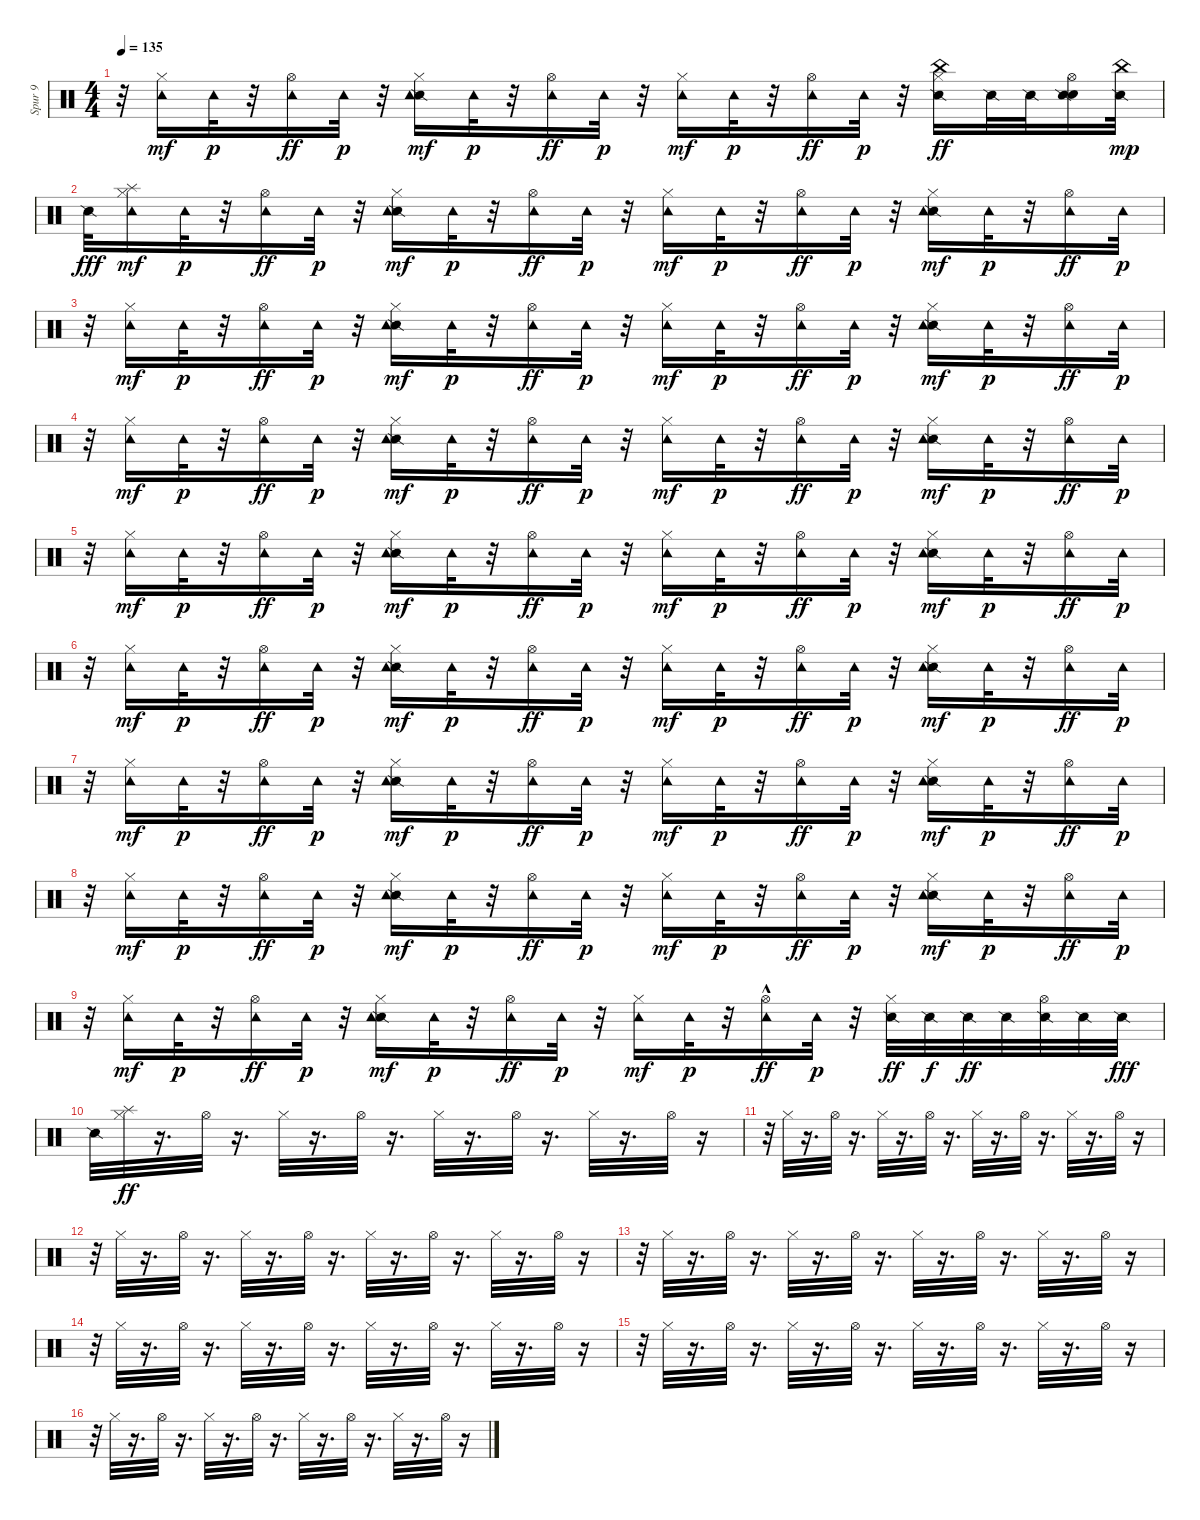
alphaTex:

\track ("Spur 9" "Spur 9") {instrument percussion}
\staff {score}
\articulation defaults
\ts (4 4)
\tempo 135
\clef neutral
\ks c
r.32{dy p} ("Hi-Hat (closed)" "Tambourine (hit)").16{dy mf} "Tambourine (hit)".32{dy p} r.32 ("Hi-Hat (open)" "Tambourine (hit)").16{dy ff} "Tambourine (hit)".32{dy p} r.32 ("Snare (side stick) 2" "Hi-Hat (closed)" "Tambourine (hit)").16{dy mf} "Tambourine (hit)".32{dy p} r.32 ("Hi-Hat (open)" "Tambourine (hit)").16{dy ff} "Tambourine (hit)".32{dy p} r.32 ("Hi-Hat (closed)" "Tambourine (hit)").16{dy mf} "Tambourine (hit)".32{dy p} r.32 ("Hi-Hat (open)" "Tambourine (hit)").16{dy ff} "Tambourine (hit)".32{dy p} r.32 ("Snare (side stick) 2" "Hi-Hat (closed)" "China (hit)").16{dy ff} "Snare (side stick) 2".32 "Snare (side stick) 2".32 ("Snare (hit)" "Snare (side stick) 2" "Hi-Hat (open)").16 ("Snare (side stick) 2" "China (hit)").32{dy mp} |
"Snare (side stick) 2".32{dy fff} ("Splash (hit)" "Hi-Hat (closed)" "Tambourine (hit)").16{dy mf} "Tambourine (hit)".32{dy p} r.32 ("Hi-Hat (open)" "Tambourine (hit)").16{dy ff} "Tambourine (hit)".32{dy p} r.32 ("Snare (side stick) 2" "Hi-Hat (closed)" "Tambourine (hit)").16{dy mf} "Tambourine (hit)".32{dy p} r.32 ("Hi-Hat (open)" "Tambourine (hit)").16{dy ff} "Tambourine (hit)".32{dy p} r.32 ("Hi-Hat (closed)" "Tambourine (hit)").16{dy mf} "Tambourine (hit)".32{dy p} r.32 ("Hi-Hat (open)" "Tambourine (hit)").16{dy ff} "Tambourine (hit)".32{dy p} r.32 ("Snare (side stick) 2" "Hi-Hat (closed)" "Tambourine (hit)").16{dy mf} "Tambourine (hit)".32{dy p} r.32 ("Hi-Hat (open)" "Tambourine (hit)").16{dy ff} "Tambourine (hit)".32{dy p} |
r.32 ("Hi-Hat (closed)" "Tambourine (hit)").16{dy mf} "Tambourine (hit)".32{dy p} r.32 ("Hi-Hat (open)" "Tambourine (hit)").16{dy ff} "Tambourine (hit)".32{dy p} r.32 ("Snare (side stick) 2" "Hi-Hat (closed)" "Tambourine (hit)").16{dy mf} "Tambourine (hit)".32{dy p} r.32 ("Hi-Hat (open)" "Tambourine (hit)").16{dy ff} "Tambourine (hit)".32{dy p} r.32 ("Hi-Hat (closed)" "Tambourine (hit)").16{dy mf} "Tambourine (hit)".32{dy p} r.32 ("Hi-Hat (open)" "Tambourine (hit)").16{dy ff} "Tambourine (hit)".32{dy p} r.32 ("Snare (side stick) 2" "Hi-Hat (closed)" "Tambourine (hit)").16{dy mf} "Tambourine (hit)".32{dy p} r.32 ("Hi-Hat (open)" "Tambourine (hit)").16{dy ff} "Tambourine (hit)".32{dy p} |
r.32 ("Hi-Hat (closed)" "Tambourine (hit)").16{dy mf} "Tambourine (hit)".32{dy p} r.32 ("Hi-Hat (open)" "Tambourine (hit)").16{dy ff} "Tambourine (hit)".32{dy p} r.32 ("Snare (side stick) 2" "Hi-Hat (closed)" "Tambourine (hit)").16{dy mf} "Tambourine (hit)".32{dy p} r.32 ("Hi-Hat (open)" "Tambourine (hit)").16{dy ff} "Tambourine (hit)".32{dy p} r.32 ("Hi-Hat (closed)" "Tambourine (hit)").16{dy mf} "Tambourine (hit)".32{dy p} r.32 ("Hi-Hat (open)" "Tambourine (hit)").16{dy ff} "Tambourine (hit)".32{dy p} r.32 ("Snare (side stick) 2" "Hi-Hat (closed)" "Tambourine (hit)").16{dy mf} "Tambourine (hit)".32{dy p} r.32 ("Hi-Hat (open)" "Tambourine (hit)").16{dy ff} "Tambourine (hit)".32{dy p} |
r.32 ("Hi-Hat (closed)" "Tambourine (hit)").16{dy mf} "Tambourine (hit)".32{dy p} r.32 ("Hi-Hat (open)" "Tambourine (hit)").16{dy ff} "Tambourine (hit)".32{dy p} r.32 ("Snare (side stick) 2" "Hi-Hat (closed)" "Tambourine (hit)").16{dy mf} "Tambourine (hit)".32{dy p} r.32 ("Hi-Hat (open)" "Tambourine (hit)").16{dy ff} "Tambourine (hit)".32{dy p} r.32 ("Hi-Hat (closed)" "Tambourine (hit)").16{dy mf} "Tambourine (hit)".32{dy p} r.32 ("Hi-Hat (open)" "Tambourine (hit)").16{dy ff} "Tambourine (hit)".32{dy p} r.32 ("Snare (side stick) 2" "Hi-Hat (closed)" "Tambourine (hit)").16{dy mf} "Tambourine (hit)".32{dy p} r.32 ("Hi-Hat (open)" "Tambourine (hit)").16{dy ff} "Tambourine (hit)".32{dy p} |
r.32 ("Hi-Hat (closed)" "Tambourine (hit)").16{dy mf} "Tambourine (hit)".32{dy p} r.32 ("Hi-Hat (open)" "Tambourine (hit)").16{dy ff} "Tambourine (hit)".32{dy p} r.32 ("Snare (side stick) 2" "Hi-Hat (closed)" "Tambourine (hit)").16{dy mf} "Tambourine (hit)".32{dy p} r.32 ("Hi-Hat (open)" "Tambourine (hit)").16{dy ff} "Tambourine (hit)".32{dy p} r.32 ("Hi-Hat (closed)" "Tambourine (hit)").16{dy mf} "Tambourine (hit)".32{dy p} r.32 ("Hi-Hat (open)" "Tambourine (hit)").16{dy ff} "Tambourine (hit)".32{dy p} r.32 ("Snare (side stick) 2" "Hi-Hat (closed)" "Tambourine (hit)").16{dy mf} "Tambourine (hit)".32{dy p} r.32 ("Hi-Hat (open)" "Tambourine (hit)").16{dy ff} "Tambourine (hit)".32{dy p} |
r.32 ("Hi-Hat (closed)" "Tambourine (hit)").16{dy mf} "Tambourine (hit)".32{dy p} r.32 ("Hi-Hat (open)" "Tambourine (hit)").16{dy ff} "Tambourine (hit)".32{dy p} r.32 ("Snare (side stick) 2" "Hi-Hat (closed)" "Tambourine (hit)").16{dy mf} "Tambourine (hit)".32{dy p} r.32 ("Hi-Hat (open)" "Tambourine (hit)").16{dy ff} "Tambourine (hit)".32{dy p} r.32 ("Hi-Hat (closed)" "Tambourine (hit)").16{dy mf} "Tambourine (hit)".32{dy p} r.32 ("Hi-Hat (open)" "Tambourine (hit)").16{dy ff} "Tambourine (hit)".32{dy p} r.32 ("Snare (side stick) 2" "Hi-Hat (closed)" "Tambourine (hit)").16{dy mf} "Tambourine (hit)".32{dy p} r.32 ("Hi-Hat (open)" "Tambourine (hit)").16{dy ff} "Tambourine (hit)".32{dy p} |
r.32 ("Hi-Hat (closed)" "Tambourine (hit)").16{dy mf} "Tambourine (hit)".32{dy p} r.32 ("Hi-Hat (open)" "Tambourine (hit)").16{dy ff} "Tambourine (hit)".32{dy p} r.32 ("Snare (side stick) 2" "Hi-Hat (closed)" "Tambourine (hit)").16{dy mf} "Tambourine (hit)".32{dy p} r.32 ("Hi-Hat (open)" "Tambourine (hit)").16{dy ff} "Tambourine (hit)".32{dy p} r.32 ("Hi-Hat (closed)" "Tambourine (hit)").16{dy mf} "Tambourine (hit)".32{dy p} r.32 ("Hi-Hat (open)" "Tambourine (hit)").16{dy ff} "Tambourine (hit)".32{dy p} r.32 ("Snare (side stick) 2" "Hi-Hat (closed)" "Tambourine (hit)").16{dy mf} "Tambourine (hit)".32{dy p} r.32 ("Hi-Hat (open)" "Tambourine (hit)").16{dy ff} "Tambourine (hit)".32{dy p} |
r.32 ("Hi-Hat (closed)" "Tambourine (hit)").16{dy mf} "Tambourine (hit)".32{dy p} r.32 ("Hi-Hat (open)" "Tambourine (hit)").16{dy ff} "Tambourine (hit)".32{dy p} r.32 ("Snare (side stick) 2" "Hi-Hat (closed)" "Tambourine (hit)").16{dy mf} "Tambourine (hit)".32{dy p} r.32 ("Hi-Hat (open)" "Tambourine (hit)").16{dy ff} "Tambourine (hit)".32{dy p} r.32 ("Hi-Hat (closed)" "Tambourine (hit)").16{dy mf} "Tambourine (hit)".32{dy p} r.32 ("Hi-Hat (open)"{hac} "Tambourine (hit)").16{dy ff} "Tambourine (hit)".32{dy p} r.32 ("Snare (side stick) 2" "Hi-Hat (closed)").32{dy ff} "Snare (side stick) 2".32{dy f} "Snare (side stick) 2".32{dy ff} "Snare (side stick) 2".32 ("Snare (side stick) 2" "Hi-Hat (open)").32 "Snare (side stick) 2".32 "Snare (side stick) 2".32{dy fff} |
"Snare (side stick) 2".32 ("Splash (hit)" "Hi-Hat (closed)").32{dy ff} r.16{d} "Hi-Hat (open)".32 r.16{d} "Hi-Hat (closed)".32 r.16{d} "Hi-Hat (open)".32 r.16{d} "Hi-Hat (closed)".32 r.16{d} "Hi-Hat (open)".32 r.16{d} "Hi-Hat (closed)".32 r.16{d} "Hi-Hat (open)".32 r.16 |
r.32 "Hi-Hat (closed)".32 r.16{d} "Hi-Hat (open)".32 r.16{d} "Hi-Hat (closed)".32 r.16{d} "Hi-Hat (open)".32 r.16{d} "Hi-Hat (closed)".32 r.16{d} "Hi-Hat (open)".32 r.16{d} "Hi-Hat (closed)".32 r.16{d} "Hi-Hat (open)".32 r.16 |
r.32 "Hi-Hat (closed)".32 r.16{d} "Hi-Hat (open)".32 r.16{d} "Hi-Hat (closed)".32 r.16{d} "Hi-Hat (open)".32 r.16{d} "Hi-Hat (closed)".32 r.16{d} "Hi-Hat (open)".32 r.16{d} "Hi-Hat (closed)".32 r.16{d} "Hi-Hat (open)".32 r.16 |
r.32 "Hi-Hat (closed)".32 r.16{d} "Hi-Hat (open)".32 r.16{d} "Hi-Hat (closed)".32 r.16{d} "Hi-Hat (open)".32 r.16{d} "Hi-Hat (closed)".32 r.16{d} "Hi-Hat (open)".32 r.16{d} "Hi-Hat (closed)".32 r.16{d} "Hi-Hat (open)".32 r.16 |
r.32 "Hi-Hat (closed)".32 r.16{d} "Hi-Hat (open)".32 r.16{d} "Hi-Hat (closed)".32 r.16{d} "Hi-Hat (open)".32 r.16{d} "Hi-Hat (closed)".32 r.16{d} "Hi-Hat (open)".32 r.16{d} "Hi-Hat (closed)".32 r.16{d} "Hi-Hat (open)".32 r.16 |
r.32 "Hi-Hat (closed)".32 r.16{d} "Hi-Hat (open)".32 r.16{d} "Hi-Hat (closed)".32 r.16{d} "Hi-Hat (open)".32 r.16{d} "Hi-Hat (closed)".32 r.16{d} "Hi-Hat (open)".32 r.16{d} "Hi-Hat (closed)".32 r.16{d} "Hi-Hat (open)".32 r.16 |
r.32 "Hi-Hat (closed)".32 r.16{d} "Hi-Hat (open)".32 r.16{d} "Hi-Hat (closed)".32 r.16{d} "Hi-Hat (open)".32 r.16{d} "Hi-Hat (closed)".32 r.16{d} "Hi-Hat (open)".32 r.16{d} "Hi-Hat (closed)".32 r.16{d} "Hi-Hat (open)".32 r.16
